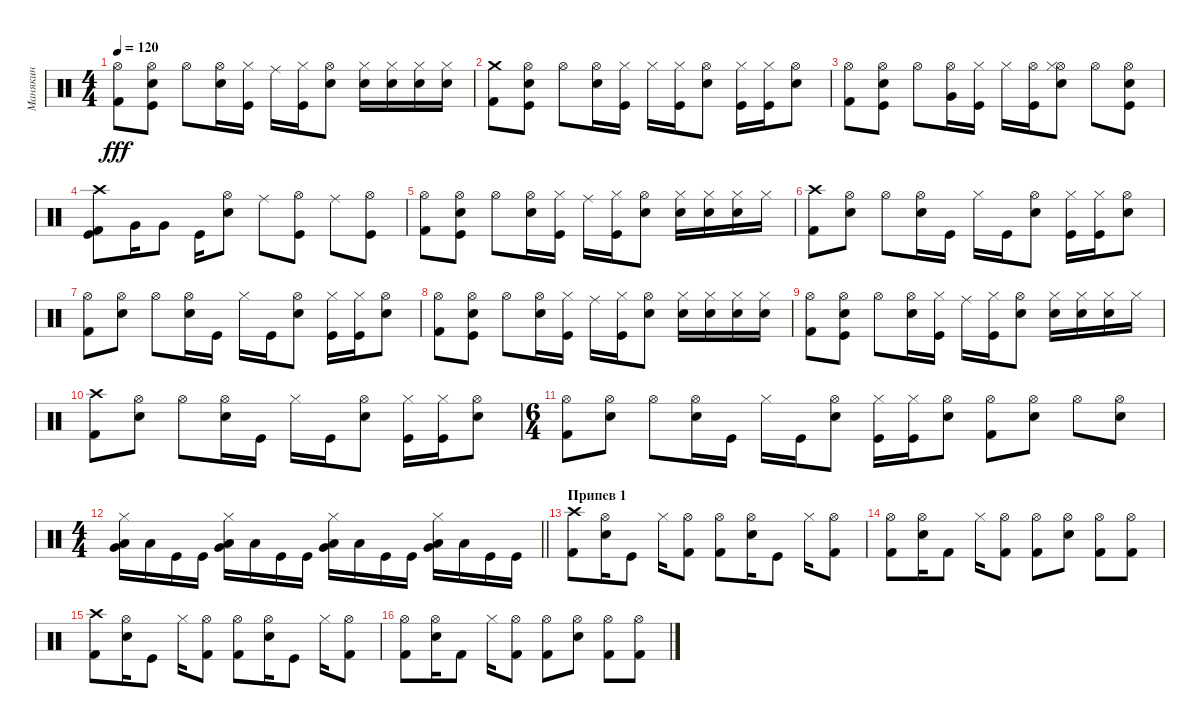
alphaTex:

\track ("Манякин" "Манякин") {instrument percussion}
\staff {score}
\articulation defaults
\ts (4 4)
\tempo 120
\clef neutral
\ks c
("Hi-Hat (open)" "Kick (hit) 2").8{dy fff} ("Hi-Hat (open)" "Snare (hit) 2" "Kick (hit)").8 "Hi-Hat (open)".8 ("Snare (hit) 2" "Hi-Hat (open)").16 ("Hi-Hat (closed)" "Kick (hit)").16 "Ride (middle)".16 ("Hi-Hat (closed)" "Kick (hit)").16 ("Hi-Hat (open)" "Snare (hit) 2").8 ("Hi-Hat (closed)" "Snare (hit) 2").16 ("Hi-Hat (closed)" "Snare (hit) 2").16 ("Hi-Hat (closed)" "Snare (hit) 2").16 ("Hi-Hat (closed)" "Snare (hit) 2").16 |
("Crash medium (hit)" "Kick (hit) 2").8 ("Hi-Hat (open)" "Snare (hit) 2" "Kick (hit)").8 "Hi-Hat (open)".8 ("Snare (hit) 2" "Hi-Hat (open)").16 ("Hi-Hat (closed)" "Kick (hit)").16 "Hi-Hat (closed)".16 ("Hi-Hat (closed)" "Kick (hit)").16 ("Hi-Hat (open)" "Snare (hit) 2").8 ("Hi-Hat (closed)" "Kick (hit)").16 ("Hi-Hat (closed)" "Kick (hit)").16 ("Hi-Hat (open)" "Snare (hit) 2").8 |
("Hi-Hat (open)" "Kick (hit) 2").8 ("Hi-Hat (open)" "Snare (hit) 2" "Kick (hit)").8 "Hi-Hat (open)".8 ("Hi-Hat (open)" "Very Low Tom (hit)").16 ("Hi-Hat (closed)" "Kick (hit)").16 "Hi-Hat (closed)".16 ("Hi-Hat (open)" "Kick (hit)").16 ("Hi-Hat (open)" "Hi-Hat (closed)" "Snare (hit) 2").8 "Hi-Hat (open)".8 ("Hi-Hat (open)" "Snare (hit) 2" "Kick (hit)").8 |
("Crash high (hit)" "Kick (hit)" "Kick (hit) 2").8 "Very Low Tom (hit)".16 "Very Low Tom (hit)".8 "Kick (hit)".16 ("Hi-Hat (open)" "Snare (hit) 2").8 "Ride (middle)".8 ("Kick (hit)" "Hi-Hat (open)").8 "Ride (middle)".8 ("Kick (hit)" "Hi-Hat (open)").8 |
("Hi-Hat (open)" "Kick (hit) 2").8 ("Hi-Hat (open)" "Snare (hit) 2" "Kick (hit)").8 "Hi-Hat (open)".8 ("Snare (hit) 2" "Hi-Hat (open)").16 ("Hi-Hat (closed)" "Kick (hit)").16 "Ride (middle)".16 ("Hi-Hat (closed)" "Kick (hit)").16 ("Hi-Hat (open)" "Snare (hit) 2").8 ("Hi-Hat (closed)" "Snare (hit) 2").16 ("Hi-Hat (closed)" "Snare (hit) 2").16 ("Hi-Hat (closed)" "Snare (hit) 2").16 "Hi-Hat (closed)".16 |
("Crash high (hit)" "Kick (hit) 2").8 ("Hi-Hat (open)" "Snare (hit) 2").8 "Hi-Hat (open)".8 ("Hi-Hat (open)" "Snare (hit) 2").16 "Kick (hit)".16 "Hi-Hat (closed)".16 "Kick (hit)".16 ("Hi-Hat (open)" "Snare (hit) 2").8 ("Hi-Hat (closed)" "Kick (hit)").16 ("Hi-Hat (closed)" "Kick (hit)").16 ("Hi-Hat (open)" "Snare (hit) 2").8 |
("Hi-Hat (open)" "Kick (hit) 2").8 ("Hi-Hat (open)" "Snare (hit) 2").8 "Hi-Hat (open)".8 ("Hi-Hat (open)" "Snare (hit) 2").16 "Kick (hit)".16 "Hi-Hat (closed)".16 "Kick (hit)".16 ("Hi-Hat (open)" "Snare (hit) 2").8 ("Hi-Hat (closed)" "Kick (hit)").16 ("Hi-Hat (closed)" "Kick (hit)").16 ("Hi-Hat (open)" "Snare (hit) 2").8 |
("Hi-Hat (open)" "Kick (hit) 2").8 ("Hi-Hat (open)" "Snare (hit) 2" "Kick (hit)").8 "Hi-Hat (open)".8 ("Snare (hit) 2" "Hi-Hat (open)").16 ("Hi-Hat (closed)" "Kick (hit)").16 "Ride (middle)".16 ("Hi-Hat (closed)" "Kick (hit)").16 ("Hi-Hat (open)" "Snare (hit) 2").8 ("Hi-Hat (closed)" "Snare (hit) 2").16 ("Hi-Hat (closed)" "Snare (hit) 2").16 ("Hi-Hat (closed)" "Snare (hit) 2").16 ("Hi-Hat (closed)" "Snare (hit) 2").16 |
("Hi-Hat (open)" "Kick (hit) 2").8 ("Hi-Hat (open)" "Snare (hit) 2" "Kick (hit)").8 "Hi-Hat (open)".8 ("Snare (hit) 2" "Hi-Hat (open)").16 ("Hi-Hat (closed)" "Kick (hit)").16 "Ride (middle)".16 ("Hi-Hat (closed)" "Kick (hit)").16 ("Hi-Hat (open)" "Snare (hit) 2").8 ("Hi-Hat (closed)" "Snare (hit) 2").16 ("Hi-Hat (closed)" "Snare (hit) 2").16 ("Hi-Hat (closed)" "Snare (hit) 2").16 "Hi-Hat (closed)".16 |
("Crash high (hit)" "Kick (hit) 2").8 ("Hi-Hat (open)" "Snare (hit) 2").8 "Hi-Hat (open)".8 ("Hi-Hat (open)" "Snare (hit) 2").16 "Kick (hit)".16 "Hi-Hat (closed)".16 "Kick (hit)".16 ("Hi-Hat (open)" "Snare (hit) 2").8 ("Hi-Hat (closed)" "Kick (hit)").16 ("Hi-Hat (closed)" "Kick (hit)").16 ("Hi-Hat (open)" "Snare (hit) 2").8 |
\ts (6 4)
("Hi-Hat (open)" "Kick (hit) 2").8 ("Hi-Hat (open)" "Snare (hit) 2").8 "Hi-Hat (open)".8 ("Hi-Hat (open)" "Snare (hit) 2").16 "Kick (hit)".16 "Hi-Hat (closed)".16 "Kick (hit)".16 ("Hi-Hat (open)" "Snare (hit) 2").8 ("Hi-Hat (closed)" "Kick (hit)").16 ("Hi-Hat (closed)" "Kick (hit)").16 ("Hi-Hat (open)" "Snare (hit) 2").8 ("Hi-Hat (open)" "Kick (hit) 2").8 ("Hi-Hat (open)" "Snare (hit) 2").8 "Hi-Hat (open)".8 ("Hi-Hat (open)" "Snare (hit) 2").8 |
\ts (4 4)
\barLineRight lightlight
("Hi-Hat (closed)" "Low Floor Tom (hit)" "Very Low Tom (hit)").16 "Low Floor Tom (hit)".16 "Kick (hit)".16 "Kick (hit)".16 ("Hi-Hat (closed)" "Low Floor Tom (hit)" "Very Low Tom (hit)").16 "Low Floor Tom (hit)".16 "Kick (hit)".16 "Kick (hit)".16 ("Hi-Hat (closed)" "Low Tom (hit)" "Very Low Tom (hit)").16 "Low Floor Tom (hit)".16 "Kick (hit)".16 "Kick (hit)".16 ("Hi-Hat (closed)" "Very Low Tom (hit)" "Low Tom (hit)").16 "Low Floor Tom (hit)".16 "Kick (hit)".16 "Kick (hit)".16 |
\section ("" "Припев 1")
("Crash high (hit)" "Kick (hit) 2").8 ("Hi-Hat (open)" "Snare (hit) 2").16 "Kick (hit)".8 "Hi-Hat (closed)".16 ("Hi-Hat (open)" "Kick (hit) 2").8 ("Hi-Hat (open)" "Kick (hit) 2").8 ("Hi-Hat (open)" "Snare (hit) 2").16 "Kick (hit)".8 "Hi-Hat (closed)".16 ("Kick (hit) 2" "Hi-Hat (open)").8 |
("Hi-Hat (open)" "Kick (hit) 2").8 ("Hi-Hat (open)" "Snare (hit) 2").16 "Kick (hit) 2".8 "Hi-Hat (closed)".16 ("Hi-Hat (open)" "Kick (hit) 2").8 ("Kick (hit) 2" "Hi-Hat (open)").8 ("Hi-Hat (open)" "Snare (hit) 2").8 ("Hi-Hat (open)" "Kick (hit) 2").8 ("Hi-Hat (open)" "Kick (hit) 2").8 |
("Crash high (hit)" "Kick (hit) 2").8 ("Hi-Hat (open)" "Snare (hit) 2").16 "Kick (hit)".8 "Hi-Hat (closed)".16 ("Hi-Hat (open)" "Kick (hit) 2").8 ("Hi-Hat (open)" "Kick (hit) 2").8 ("Hi-Hat (open)" "Snare (hit) 2").16 "Kick (hit)".8 "Hi-Hat (closed)".16 ("Kick (hit) 2" "Hi-Hat (open)").8 |
("Hi-Hat (open)" "Kick (hit) 2").8 ("Hi-Hat (open)" "Snare (hit) 2").16 "Kick (hit) 2".8 "Hi-Hat (closed)".16 ("Hi-Hat (open)" "Kick (hit) 2").8 ("Kick (hit) 2" "Hi-Hat (open)").8 ("Hi-Hat (open)" "Snare (hit) 2").8 ("Hi-Hat (open)" "Kick (hit) 2").8 ("Hi-Hat (open)" "Kick (hit) 2").8
